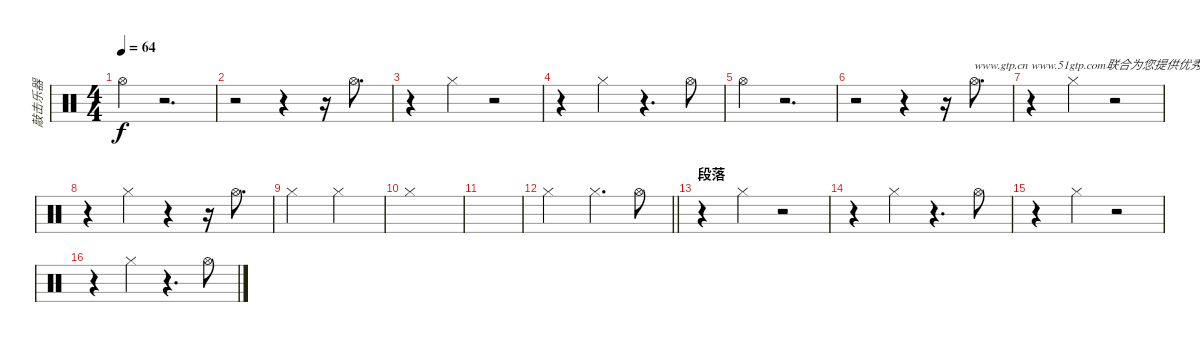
\track ("敲击乐器" "敲击乐器") {instrument percussion}
\staff {score}
\articulation defaults
\ts (4 4)
\tempo 64
\clef neutral
\ks c "Hi-Hat (open)".4{dy f}
r.2{d} |
r.2 r.4 r.16 "Hi-Hat (open)".8{d} |
r.4 "Hi-Hat (closed)".4 r.2 |
r.4 "Hi-Hat (closed)".4 r.4{d} "Hi-Hat (open)".8 |
"Hi-Hat (open)".4 r.2{d} |
r.2 r.4 r.16 "Hi-Hat (open)".8{d txt "www.gtp.cn www.51gtp.com联合为您提供优秀的GTP!"} |
r.4 "Hi-Hat (closed)".4 r.2 |
r.4 "Hi-Hat (closed)".4 r.4 r.16 "Hi-Hat (open)".8{d} |
"Hi-Hat (closed)".2 "Hi-Hat (closed)".2 |
"Hi-Hat (closed)".1 |
|
\barLineRight lightlight "Hi-Hat (closed)".2 "Hi-Hat (closed)".4{d} "Hi-Hat (open)".8
|
\section ("" "段落 ")
r.4 "Hi-Hat (closed)".4 r.2 |
r.4 "Hi-Hat (closed)".4 r.4{d} "Hi-Hat (open)".8 |
r.4 "Hi-Hat (closed)".4 r.2 |
r.4 "Hi-Hat (closed)".4 r.4{d} "Hi-Hat (open)".8
